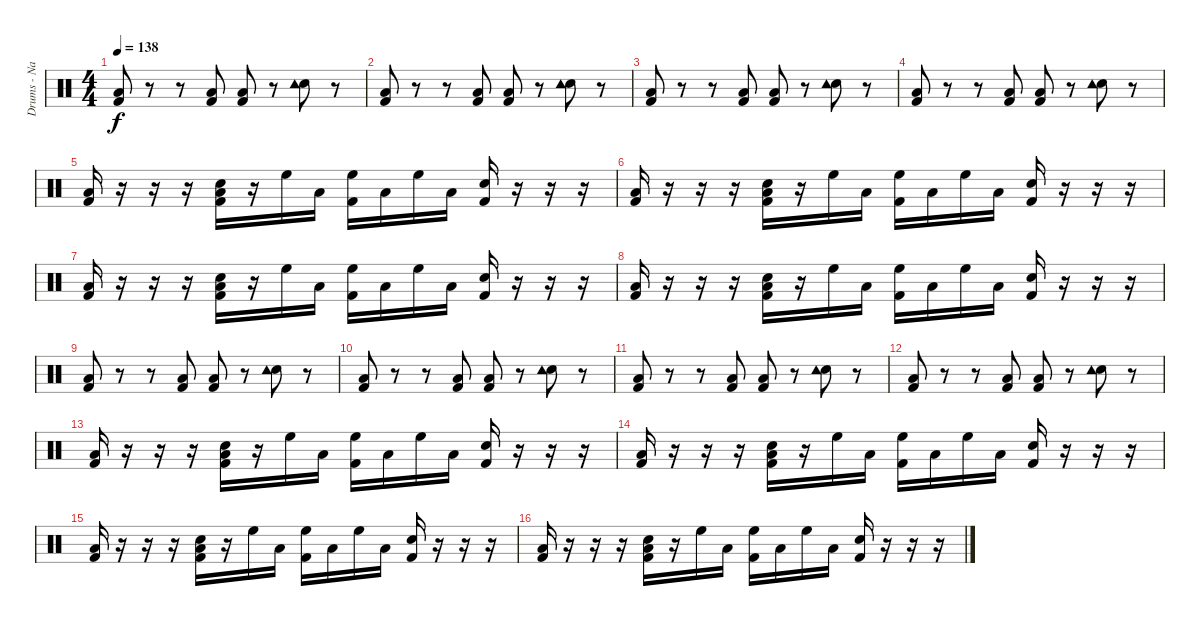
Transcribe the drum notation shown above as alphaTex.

\track ("Drums - Nathan" "Drums - Na") {instrument percussion}
\staff {score}
\articulation defaults
\ts (4 4)
\tempo 138
\clef neutral
\ks c
("Low Tom (hit)" "Kick (hit) 2").8{dy f} r.8 r.8 ("Low Tom (hit)" "Kick (hit) 2").8 ("Low Tom (hit)" "Kick (hit) 2").8 r.8 ("Electric Snare (hit)" "Tambourine (hit)").8 r.8 |
("Low Tom (hit)" "Kick (hit) 2").8 r.8 r.8 ("Low Tom (hit)" "Kick (hit) 2").8 ("Low Tom (hit)" "Kick (hit) 2").8 r.8 ("Electric Snare (hit)" "Tambourine (hit)").8 r.8 |
("Low Tom (hit)" "Kick (hit) 2").8 r.8 r.8 ("Low Tom (hit)" "Kick (hit) 2").8 ("Low Tom (hit)" "Kick (hit) 2").8 r.8 ("Electric Snare (hit)" "Tambourine (hit)").8 r.8 |
("Low Tom (hit)" "Kick (hit) 2").8 r.8 r.8 ("Low Tom (hit)" "Kick (hit) 2").8 ("Low Tom (hit)" "Kick (hit) 2").8 r.8 ("Electric Snare (hit)" "Tambourine (hit)").8 r.8 |
("Low Tom (hit)" "Kick (hit) 2").16 r.16 r.16 r.16 ("Electric Snare (hit)" "Low Tom (hit)" "Kick (hit) 2").16 r.16 "High Floor Tom (hit)".16 "Low Tom (hit)".16 ("High Floor Tom (hit)" "Kick (hit) 2").16 "Low Tom (hit)".16 "High Floor Tom (hit)".16 "Low Tom (hit)".16 ("Electric Snare (hit)" "Kick (hit) 2").16 r.16 r.16 r.16 |
("Low Tom (hit)" "Kick (hit) 2").16 r.16 r.16 r.16 ("Electric Snare (hit)" "Low Tom (hit)" "Kick (hit) 2").16 r.16 "High Floor Tom (hit)".16 "Low Tom (hit)".16 ("High Floor Tom (hit)" "Kick (hit) 2").16 "Low Tom (hit)".16 "High Floor Tom (hit)".16 "Low Tom (hit)".16 ("Electric Snare (hit)" "Kick (hit) 2").16 r.16 r.16 r.16 |
("Low Tom (hit)" "Kick (hit) 2").16 r.16 r.16 r.16 ("Electric Snare (hit)" "Low Tom (hit)" "Kick (hit) 2").16 r.16 "High Floor Tom (hit)".16 "Low Tom (hit)".16 ("High Floor Tom (hit)" "Kick (hit) 2").16 "Low Tom (hit)".16 "High Floor Tom (hit)".16 "Low Tom (hit)".16 ("Electric Snare (hit)" "Kick (hit) 2").16 r.16 r.16 r.16 |
("Low Tom (hit)" "Kick (hit) 2").16 r.16 r.16 r.16 ("Electric Snare (hit)" "Low Tom (hit)" "Kick (hit) 2").16 r.16 "High Floor Tom (hit)".16 "Low Tom (hit)".16 ("High Floor Tom (hit)" "Kick (hit) 2").16 "Low Tom (hit)".16 "High Floor Tom (hit)".16 "Low Tom (hit)".16 ("Electric Snare (hit)" "Kick (hit) 2").16 r.16 r.16 r.16 |
("Low Tom (hit)" "Kick (hit) 2").8 r.8 r.8 ("Low Tom (hit)" "Kick (hit) 2").8 ("Low Tom (hit)" "Kick (hit) 2").8 r.8 ("Electric Snare (hit)" "Tambourine (hit)").8 r.8 |
("Low Tom (hit)" "Kick (hit) 2").8 r.8 r.8 ("Low Tom (hit)" "Kick (hit) 2").8 ("Low Tom (hit)" "Kick (hit) 2").8 r.8 ("Electric Snare (hit)" "Tambourine (hit)").8 r.8 |
("Low Tom (hit)" "Kick (hit) 2").8 r.8 r.8 ("Low Tom (hit)" "Kick (hit) 2").8 ("Low Tom (hit)" "Kick (hit) 2").8 r.8 ("Electric Snare (hit)" "Tambourine (hit)").8 r.8 |
("Low Tom (hit)" "Kick (hit) 2").8 r.8 r.8 ("Low Tom (hit)" "Kick (hit) 2").8 ("Low Tom (hit)" "Kick (hit) 2").8 r.8 ("Electric Snare (hit)" "Tambourine (hit)").8 r.8 |
("Low Tom (hit)" "Kick (hit) 2").16 r.16 r.16 r.16 ("Electric Snare (hit)" "Low Tom (hit)" "Kick (hit) 2").16 r.16 "High Floor Tom (hit)".16 "Low Tom (hit)".16 ("High Floor Tom (hit)" "Kick (hit) 2").16 "Low Tom (hit)".16 "High Floor Tom (hit)".16 "Low Tom (hit)".16 ("Electric Snare (hit)" "Kick (hit) 2").16 r.16 r.16 r.16 |
("Low Tom (hit)" "Kick (hit) 2").16 r.16 r.16 r.16 ("Electric Snare (hit)" "Low Tom (hit)" "Kick (hit) 2").16 r.16 "High Floor Tom (hit)".16 "Low Tom (hit)".16 ("High Floor Tom (hit)" "Kick (hit) 2").16 "Low Tom (hit)".16 "High Floor Tom (hit)".16 "Low Tom (hit)".16 ("Electric Snare (hit)" "Kick (hit) 2").16 r.16 r.16 r.16 |
("Low Tom (hit)" "Kick (hit) 2").16 r.16 r.16 r.16 ("Electric Snare (hit)" "Low Tom (hit)" "Kick (hit) 2").16 r.16 "High Floor Tom (hit)".16 "Low Tom (hit)".16 ("High Floor Tom (hit)" "Kick (hit) 2").16 "Low Tom (hit)".16 "High Floor Tom (hit)".16 "Low Tom (hit)".16 ("Electric Snare (hit)" "Kick (hit) 2").16 r.16 r.16 r.16 |
("Low Tom (hit)" "Kick (hit) 2").16 r.16 r.16 r.16 ("Electric Snare (hit)" "Low Tom (hit)" "Kick (hit) 2").16 r.16 "High Floor Tom (hit)".16 "Low Tom (hit)".16 ("High Floor Tom (hit)" "Kick (hit) 2").16 "Low Tom (hit)".16 "High Floor Tom (hit)".16 "Low Tom (hit)".16 ("Electric Snare (hit)" "Kick (hit) 2").16 r.16 r.16 r.16
